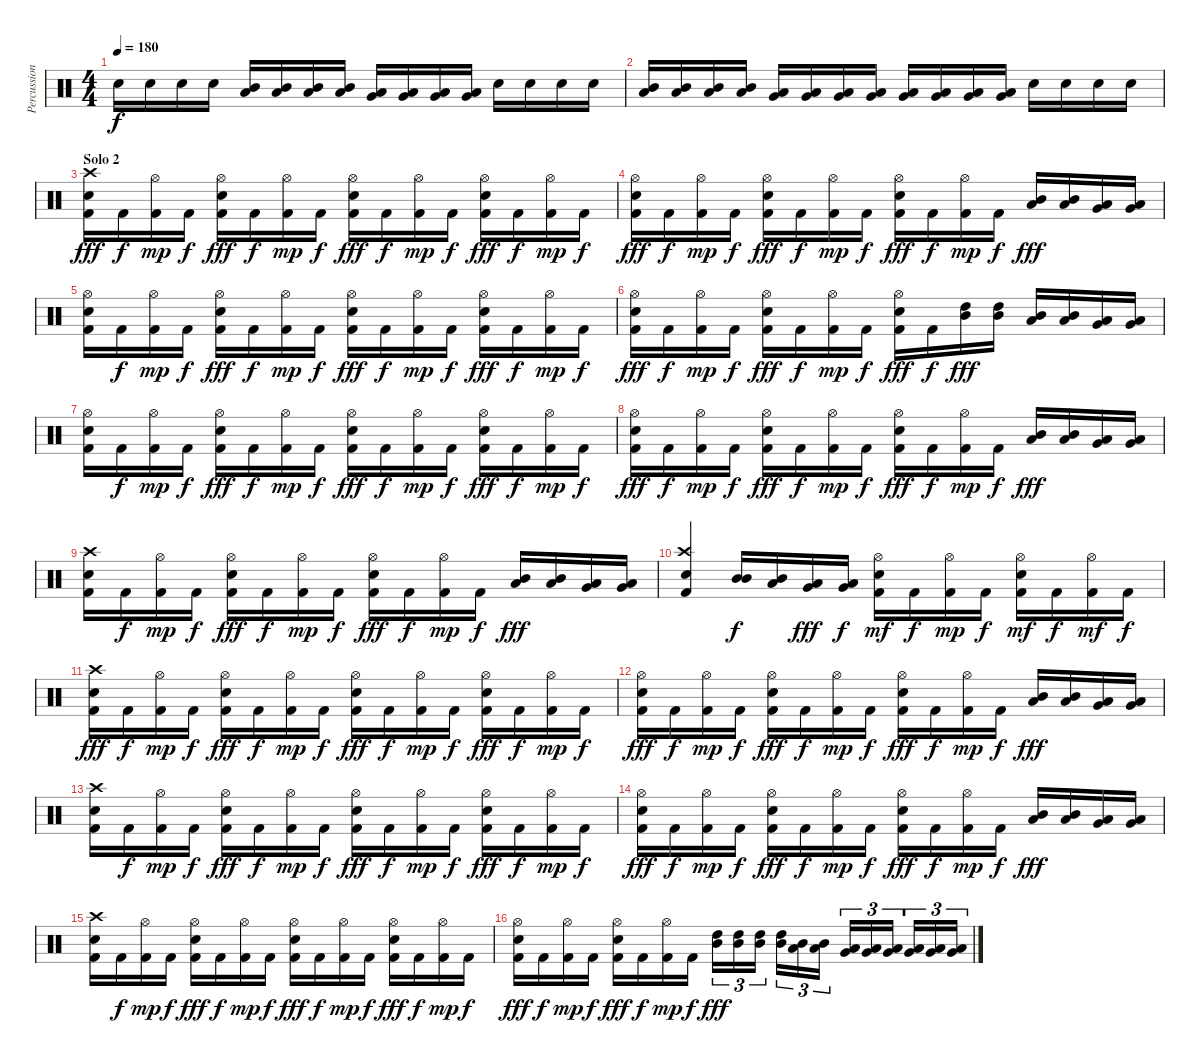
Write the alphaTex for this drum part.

\track ("Percussion" "Percussion") {instrument percussion}
\staff {score}
\articulation defaults
\ts (4 4)
\tempo 180
\clef neutral
\ks c "Snare (hit) 2".16{dy f} "Snare (hit) 2".16 "Snare (hit) 2".16 "Snare (hit) 2".16
("Mid Tom (hit)" "Low Tom (hit)").16 ("Mid Tom (hit)" "Low Tom (hit)").16 ("Mid Tom (hit)" "Low Tom (hit)").16 ("Mid Tom (hit)" "Low Tom (hit)").16 ("Low Tom (hit)" "Very Low Tom (hit)").16 ("Low Tom (hit)" "Very Low Tom (hit)").16 ("Low Tom (hit)" "Very Low Tom (hit)").16 ("Low Tom (hit)" "Very Low Tom (hit)").16 "Snare (hit) 2".16 "Snare (hit) 2".16 "Snare (hit) 2".16 "Snare (hit) 2".16 |
("Mid Tom (hit)" "Low Tom (hit)").16 ("Mid Tom (hit)" "Low Tom (hit)").16 ("Mid Tom (hit)" "Low Tom (hit)").16 ("Mid Tom (hit)" "Low Tom (hit)").16 ("Low Tom (hit)" "Very Low Tom (hit)").16 ("Low Tom (hit)" "Very Low Tom (hit)").16 ("Low Tom (hit)" "Very Low Tom (hit)").16 ("Low Tom (hit)" "Very Low Tom (hit)").16 ("Very Low Tom (hit)" "Low Floor Tom (hit)").16 ("Very Low Tom (hit)" "Low Floor Tom (hit)").16 ("Very Low Tom (hit)" "Low Floor Tom (hit)").16 ("Very Low Tom (hit)" "Low Floor Tom (hit)").16 "Snare (hit) 2".16 "Snare (hit) 2".16 "Snare (hit) 2".16 "Snare (hit) 2".16 |
\section ("" "Solo 2")
("Crash high (hit)" "Snare (hit) 2" "Kick (hit) 2").16{dy fff} "Kick (hit) 2".16{dy f} ("Hi-Hat (open)" "Kick (hit) 2").16{dy mp} "Kick (hit) 2".16{dy f} ("Hi-Hat (open)" "Snare (hit) 2" "Kick (hit) 2").16{dy fff} "Kick (hit) 2".16{dy f} ("Hi-Hat (open)" "Kick (hit) 2").16{dy mp} "Kick (hit) 2".16{dy f} ("Hi-Hat (open)" "Snare (hit) 2" "Kick (hit) 2").16{dy fff} "Kick (hit) 2".16{dy f} ("Hi-Hat (open)" "Kick (hit) 2").16{dy mp} "Kick (hit) 2".16{dy f} ("Hi-Hat (open)" "Snare (hit) 2" "Kick (hit) 2").16{dy fff} "Kick (hit) 2".16{dy f} ("Hi-Hat (open)" "Kick (hit) 2").16{dy mp} "Kick (hit) 2".16{dy f} |
("Hi-Hat (open)" "Snare (hit) 2" "Kick (hit) 2").16{dy fff} "Kick (hit) 2".16{dy f} ("Hi-Hat (open)" "Kick (hit) 2").16{dy mp} "Kick (hit) 2".16{dy f} ("Hi-Hat (open)" "Snare (hit) 2" "Kick (hit) 2").16{dy fff} "Kick (hit) 2".16{dy f} ("Hi-Hat (open)" "Kick (hit) 2").16{dy mp} "Kick (hit) 2".16{dy f} ("Hi-Hat (open)" "Snare (hit) 2" "Kick (hit) 2").16{dy fff} "Kick (hit) 2".16{dy f} ("Hi-Hat (open)" "Kick (hit) 2").16{dy mp} "Kick (hit) 2".16{dy f} ("Mid Tom (hit)" "Low Tom (hit)").16{dy fff} ("Mid Tom (hit)" "Low Tom (hit)").16 ("Low Tom (hit)" "Very Low Tom (hit)").16 ("Low Tom (hit)" "Very Low Tom (hit)").16 |
("Hi-Hat (open)" "Snare (hit) 2" "Kick (hit) 2").16 "Kick (hit) 2".16{dy f} ("Hi-Hat (open)" "Kick (hit) 2").16{dy mp} "Kick (hit) 2".16{dy f} ("Hi-Hat (open)" "Snare (hit) 2" "Kick (hit) 2").16{dy fff} "Kick (hit) 2".16{dy f} ("Hi-Hat (open)" "Kick (hit) 2").16{dy mp} "Kick (hit) 2".16{dy f} ("Hi-Hat (open)" "Snare (hit) 2" "Kick (hit) 2").16{dy fff} "Kick (hit) 2".16{dy f} ("Hi-Hat (open)" "Kick (hit) 2").16{dy mp} "Kick (hit) 2".16{dy f} ("Hi-Hat (open)" "Snare (hit) 2" "Kick (hit) 2").16{dy fff} "Kick (hit) 2".16{dy f} ("Hi-Hat (open)" "Kick (hit) 2").16{dy mp} "Kick (hit) 2".16{dy f} |
("Hi-Hat (open)" "Snare (hit) 2" "Kick (hit) 2").16{dy fff} "Kick (hit) 2".16{dy f} ("Hi-Hat (open)" "Kick (hit) 2").16{dy mp} "Kick (hit) 2".16{dy f} ("Hi-Hat (open)" "Snare (hit) 2" "Kick (hit) 2").16{dy fff} "Kick (hit) 2".16{dy f} ("Hi-Hat (open)" "Kick (hit) 2").16{dy mp} "Kick (hit) 2".16{dy f} ("Hi-Hat (open)" "Snare (hit) 2" "Kick (hit) 2").16{dy fff} "Kick (hit) 2".16{dy f} ("High Tom (hit)" "Mid Tom (hit)").16{dy fff} ("High Tom (hit)" "Mid Tom (hit)").16 ("Mid Tom (hit)" "Low Tom (hit)").16 ("Mid Tom (hit)" "Low Tom (hit)").16 ("Low Tom (hit)" "Very Low Tom (hit)").16 ("Low Tom (hit)" "Very Low Tom (hit)").16 |
("Hi-Hat (open)" "Snare (hit) 2" "Kick (hit) 2").16 "Kick (hit) 2".16{dy f} ("Hi-Hat (open)" "Kick (hit) 2").16{dy mp} "Kick (hit) 2".16{dy f} ("Hi-Hat (open)" "Snare (hit) 2" "Kick (hit) 2").16{dy fff} "Kick (hit) 2".16{dy f} ("Hi-Hat (open)" "Kick (hit) 2").16{dy mp} "Kick (hit) 2".16{dy f} ("Hi-Hat (open)" "Snare (hit) 2" "Kick (hit) 2").16{dy fff} "Kick (hit) 2".16{dy f} ("Hi-Hat (open)" "Kick (hit) 2").16{dy mp} "Kick (hit) 2".16{dy f} ("Hi-Hat (open)" "Snare (hit) 2" "Kick (hit) 2").16{dy fff} "Kick (hit) 2".16{dy f} ("Hi-Hat (open)" "Kick (hit) 2").16{dy mp} "Kick (hit) 2".16{dy f} |
("Hi-Hat (open)" "Snare (hit) 2" "Kick (hit) 2").16{dy fff} "Kick (hit) 2".16{dy f} ("Hi-Hat (open)" "Kick (hit) 2").16{dy mp} "Kick (hit) 2".16{dy f} ("Hi-Hat (open)" "Snare (hit) 2" "Kick (hit) 2").16{dy fff} "Kick (hit) 2".16{dy f} ("Hi-Hat (open)" "Kick (hit) 2").16{dy mp} "Kick (hit) 2".16{dy f} ("Hi-Hat (open)" "Snare (hit) 2" "Kick (hit) 2").16{dy fff} "Kick (hit) 2".16{dy f} ("Hi-Hat (open)" "Kick (hit) 2").16{dy mp} "Kick (hit) 2".16{dy f} ("Mid Tom (hit)" "Low Tom (hit)").16{dy fff} ("Mid Tom (hit)" "Low Tom (hit)").16 ("Low Tom (hit)" "Very Low Tom (hit)").16 ("Low Tom (hit)" "Very Low Tom (hit)").16 |
("Crash high (hit)" "Snare (hit) 2" "Kick (hit) 2").16 "Kick (hit) 2".16{dy f} ("Hi-Hat (open)" "Kick (hit) 2").16{dy mp} "Kick (hit) 2".16{dy f} ("Hi-Hat (open)" "Snare (hit) 2" "Kick (hit) 2").16{dy fff} "Kick (hit) 2".16{dy f} ("Hi-Hat (open)" "Kick (hit) 2").16{dy mp} "Kick (hit) 2".16{dy f} ("Hi-Hat (open)" "Snare (hit) 2" "Kick (hit) 2").16{dy fff} "Kick (hit) 2".16{dy f} ("Hi-Hat (open)" "Kick (hit) 2").16{dy mp} "Kick (hit) 2".16{dy f} ("Mid Tom (hit)" "Low Tom (hit)").16{dy fff} ("Mid Tom (hit)" "Low Tom (hit)").16 ("Low Tom (hit)" "Very Low Tom (hit)").16 ("Low Tom (hit)" "Very Low Tom (hit)").16 |
("Crash high (hit)" "Snare (hit) 2" "Kick (hit) 2").4 ("Mid Tom (hit)" "Mid Tom (hit)").16{dy f} ("Mid Tom (hit)" "Low Tom (hit)").16 ("Low Tom (hit)" "Very Low Tom (hit)").16{dy fff} ("Low Tom (hit)" "Very Low Tom (hit)").16{dy f} ("Hi-Hat (open)" "Snare (hit) 2" "Kick (hit) 2").16{dy mf} "Kick (hit) 2".16{dy f} ("Hi-Hat (open)" "Kick (hit) 2").16{dy mp} "Kick (hit) 2".16{dy f} ("Hi-Hat (open)" "Snare (hit) 2" "Kick (hit) 2").16{dy mf} "Kick (hit) 2".16{dy f} ("Hi-Hat (open)" "Kick (hit) 2").16{dy mf} "Kick (hit) 2".16{dy f} |
("Crash high (hit)" "Snare (hit) 2" "Kick (hit) 2").16{dy fff} "Kick (hit) 2".16{dy f} ("Hi-Hat (open)" "Kick (hit) 2").16{dy mp} "Kick (hit) 2".16{dy f} ("Hi-Hat (open)" "Snare (hit) 2" "Kick (hit) 2").16{dy fff} "Kick (hit) 2".16{dy f} ("Hi-Hat (open)" "Kick (hit) 2").16{dy mp} "Kick (hit) 2".16{dy f} ("Hi-Hat (open)" "Snare (hit) 2" "Kick (hit) 2").16{dy fff} "Kick (hit) 2".16{dy f} ("Hi-Hat (open)" "Kick (hit) 2").16{dy mp} "Kick (hit) 2".16{dy f} ("Hi-Hat (open)" "Snare (hit) 2" "Kick (hit) 2").16{dy fff} "Kick (hit) 2".16{dy f} ("Hi-Hat (open)" "Kick (hit) 2").16{dy mp} "Kick (hit) 2".16{dy f} |
("Hi-Hat (open)" "Snare (hit) 2" "Kick (hit) 2").16{dy fff} "Kick (hit) 2".16{dy f} ("Hi-Hat (open)" "Kick (hit) 2").16{dy mp} "Kick (hit) 2".16{dy f} ("Hi-Hat (open)" "Snare (hit) 2" "Kick (hit) 2").16{dy fff} "Kick (hit) 2".16{dy f} ("Hi-Hat (open)" "Kick (hit) 2").16{dy mp} "Kick (hit) 2".16{dy f} ("Hi-Hat (open)" "Snare (hit) 2" "Kick (hit) 2").16{dy fff} "Kick (hit) 2".16{dy f} ("Hi-Hat (open)" "Kick (hit) 2").16{dy mp} "Kick (hit) 2".16{dy f} ("Mid Tom (hit)" "Low Tom (hit)").16{dy fff} ("Mid Tom (hit)" "Low Tom (hit)").16 ("Low Tom (hit)" "Very Low Tom (hit)").16 ("Low Tom (hit)" "Very Low Tom (hit)").16 |
("Crash high (hit)" "Snare (hit) 2" "Kick (hit) 2").16 "Kick (hit) 2".16{dy f} ("Hi-Hat (open)" "Kick (hit) 2").16{dy mp} "Kick (hit) 2".16{dy f} ("Hi-Hat (open)" "Snare (hit) 2" "Kick (hit) 2").16{dy fff} "Kick (hit) 2".16{dy f} ("Hi-Hat (open)" "Kick (hit) 2").16{dy mp} "Kick (hit) 2".16{dy f} ("Hi-Hat (open)" "Snare (hit) 2" "Kick (hit) 2").16{dy fff} "Kick (hit) 2".16{dy f} ("Hi-Hat (open)" "Kick (hit) 2").16{dy mp} "Kick (hit) 2".16{dy f} ("Hi-Hat (open)" "Snare (hit) 2" "Kick (hit) 2").16{dy fff} "Kick (hit) 2".16{dy f} ("Hi-Hat (open)" "Kick (hit) 2").16{dy mp} "Kick (hit) 2".16{dy f} |
("Hi-Hat (open)" "Snare (hit) 2" "Kick (hit) 2").16{dy fff} "Kick (hit) 2".16{dy f} ("Hi-Hat (open)" "Kick (hit) 2").16{dy mp} "Kick (hit) 2".16{dy f} ("Hi-Hat (open)" "Snare (hit) 2" "Kick (hit) 2").16{dy fff} "Kick (hit) 2".16{dy f} ("Hi-Hat (open)" "Kick (hit) 2").16{dy mp} "Kick (hit) 2".16{dy f} ("Hi-Hat (open)" "Snare (hit) 2" "Kick (hit) 2").16{dy fff} "Kick (hit) 2".16{dy f} ("Hi-Hat (open)" "Kick (hit) 2").16{dy mp} "Kick (hit) 2".16{dy f} ("Mid Tom (hit)" "Low Tom (hit)").16{dy fff} ("Mid Tom (hit)" "Low Tom (hit)").16 ("Low Tom (hit)" "Very Low Tom (hit)").16 ("Low Tom (hit)" "Very Low Tom (hit)").16 |
("Crash high (hit)" "Snare (hit) 2" "Kick (hit) 2").16 "Kick (hit) 2".16{dy f} ("Hi-Hat (open)" "Kick (hit) 2").16{dy mp} "Kick (hit) 2".16{dy f} ("Hi-Hat (open)" "Snare (hit) 2" "Kick (hit) 2").16{dy fff} "Kick (hit) 2".16{dy f} ("Hi-Hat (open)" "Kick (hit) 2").16{dy mp} "Kick (hit) 2".16{dy f} ("Hi-Hat (open)" "Snare (hit) 2" "Kick (hit) 2").16{dy fff} "Kick (hit) 2".16{dy f} ("Hi-Hat (open)" "Kick (hit) 2").16{dy mp} "Kick (hit) 2".16{dy f} ("Hi-Hat (open)" "Snare (hit) 2" "Kick (hit) 2").16{dy fff} "Kick (hit) 2".16{dy f} ("Hi-Hat (open)" "Kick (hit) 2").16{dy mp} "Kick (hit) 2".16{dy f} |
("Hi-Hat (open)" "Snare (hit) 2" "Kick (hit) 2").16{dy fff} "Kick (hit) 2".16{dy f} ("Hi-Hat (open)" "Kick (hit) 2").16{dy mp} "Kick (hit) 2".16{dy f} ("Hi-Hat (open)" "Snare (hit) 2" "Kick (hit) 2").16{dy fff} "Kick (hit) 2".16{dy f} ("Hi-Hat (open)" "Kick (hit) 2").16{dy mp} "Kick (hit) 2".16{dy f} ("High Tom (hit)" "Mid Tom (hit)").16{tu (3 2) dy fff} ("High Tom (hit)" "Mid Tom (hit)").16{tu (3 2)} ("High Tom (hit)" "Mid Tom (hit)").16{tu (3 2)} ("High Tom (hit)" "Mid Tom (hit)").16{tu (3 2)} ("Mid Tom (hit)" "Low Tom (hit)").16{tu (3 2)} ("Mid Tom (hit)" "Low Tom (hit)").16{tu (3 2)} ("Low Tom (hit)" "Very Low Tom (hit)").16{tu (3 2)} ("Low Tom (hit)" "Very Low Tom (hit)").16{tu (3 2)} ("Low Tom (hit)" "Very Low Tom (hit)").16{tu (3 2)} ("Low Tom (hit)" "Very Low Tom (hit)").16{tu (3 2)} ("Very Low Tom (hit)" "Low Floor Tom (hit)").16{tu (3 2)} ("Very Low Tom (hit)" "Low Floor Tom (hit)").16{tu (3 2)}
